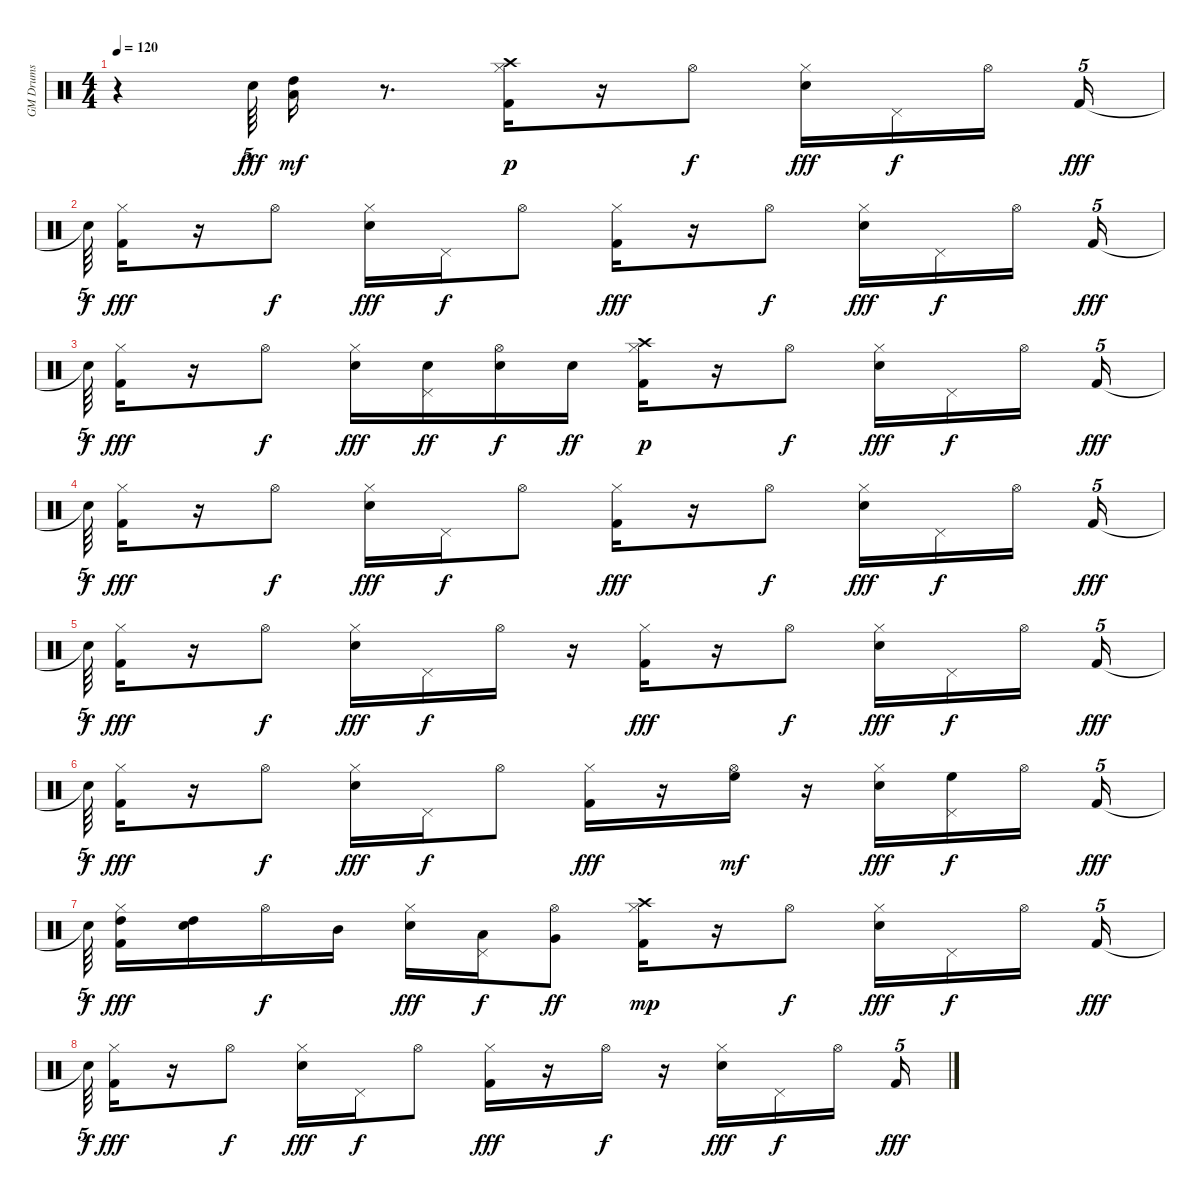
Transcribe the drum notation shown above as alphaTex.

\track ("GM Drums" "GM Drums") {instrument percussion}
\staff {score}
\articulation defaults
\ts (4 4)
\tempo 120
\clef neutral
\ks c
r.4{dy fff} "Electric Snare (hit)".64{tu (5 4)} ("High Tom (hit)" "Low Tom (hit)").16{dy mf} r.8{d} ("Kick (hit) 2" "Hi-Hat (closed)" "Crash high (hit)").16{dy p} r.16 "Hi-Hat (open)".8{dy f} ("Electric Snare (hit)" "Hi-Hat (closed)").16{dy fff} "Pedal Hi-Hat (hit)".16{dy f} "Hi-Hat (open)".16 "Kick (hit) 2".16{tu (5 4) dy fff} |
"Snare (hit)"{t}.64{tu (5 4) dy f} ("Kick (hit) 2" "Hi-Hat (closed)").16{dy fff} r.16 "Hi-Hat (open)".8{dy f} ("Electric Snare (hit)" "Hi-Hat (closed)").16{dy fff} "Pedal Hi-Hat (hit)".16{dy f} "Hi-Hat (open)".8 ("Kick (hit) 2" "Hi-Hat (closed)").16{dy fff} r.16 "Hi-Hat (open)".8{dy f} ("Electric Snare (hit)" "Hi-Hat (closed)").16{dy fff} "Pedal Hi-Hat (hit)".16{dy f} "Hi-Hat (open)".16 "Kick (hit) 2".16{tu (5 4) dy fff} |
"Snare (hit)"{t}.64{tu (5 4) dy f} ("Kick (hit) 2" "Hi-Hat (closed)").16{dy fff} r.16 "Hi-Hat (open)".8{dy f} ("Electric Snare (hit)" "Hi-Hat (closed)").16{dy fff} ("Electric Snare (hit)" "Pedal Hi-Hat (hit)").16{dy ff} ("Electric Snare (hit)" "Hi-Hat (open)").16{dy f} "Electric Snare (hit)".16{dy ff} ("Kick (hit) 2" "Hi-Hat (closed)" "Crash high (hit)").16{dy p} r.16 "Hi-Hat (open)".8{dy f} ("Electric Snare (hit)" "Hi-Hat (closed)").16{dy fff} "Pedal Hi-Hat (hit)".16{dy f} "Hi-Hat (open)".16 "Kick (hit) 2".16{tu (5 4) dy fff} |
"Snare (hit)"{t}.64{tu (5 4) dy f} ("Kick (hit) 2" "Hi-Hat (closed)").16{dy fff} r.16 "Hi-Hat (open)".8{dy f} ("Electric Snare (hit)" "Hi-Hat (closed)").16{dy fff} "Pedal Hi-Hat (hit)".16{dy f} "Hi-Hat (open)".8 ("Kick (hit) 2" "Hi-Hat (closed)").16{dy fff} r.16 "Hi-Hat (open)".8{dy f} ("Electric Snare (hit)" "Hi-Hat (closed)").16{dy fff} "Pedal Hi-Hat (hit)".16{dy f} "Hi-Hat (open)".16 "Kick (hit) 2".16{tu (5 4) dy fff} |
"Snare (hit)"{t}.64{tu (5 4) dy f} ("Kick (hit) 2" "Hi-Hat (closed)").16{dy fff} r.16 "Hi-Hat (open)".8{dy f} ("Electric Snare (hit)" "Hi-Hat (closed)").16{dy fff} "Pedal Hi-Hat (hit)".16{dy f} "Hi-Hat (open)".16 r.16 ("Kick (hit) 2" "Hi-Hat (closed)").16{dy fff} r.16 "Hi-Hat (open)".8{dy f} ("Electric Snare (hit)" "Hi-Hat (closed)").16{dy fff} "Pedal Hi-Hat (hit)".16{dy f} "Hi-Hat (open)".16 "Kick (hit) 2".16{tu (5 4) dy fff} |
"Snare (hit)"{t}.64{tu (5 4) dy f} ("Kick (hit) 2" "Hi-Hat (closed)").16{dy fff} r.16 "Hi-Hat (open)".8{dy f} ("Electric Snare (hit)" "Hi-Hat (closed)").16{dy fff} "Pedal Hi-Hat (hit)".16{dy f} "Hi-Hat (open)".8 ("Kick (hit) 2" "Hi-Hat (closed)").16{dy fff} r.16 ("Hi-Hat (open)" "High Floor Tom (hit)").16{dy mf} r.16 ("Electric Snare (hit)" "Hi-Hat (closed)").16{dy fff} ("Pedal Hi-Hat (hit)" "High Floor Tom (hit)").16{dy f} "Hi-Hat (open)".16 "Kick (hit) 2".16{tu (5 4) dy fff} |
"Snare (hit)"{t}.64{tu (5 4) dy f} ("Kick (hit) 2" "Hi-Hat (closed)" "High Tom (hit)").16{dy fff} ("Electric Snare (hit)" "High Tom (hit)").16 "Hi-Hat (open)".16{dy f} "Mid Tom (hit)".16 ("Electric Snare (hit)" "Hi-Hat (closed)").16{dy fff} ("Pedal Hi-Hat (hit)" "Low Tom (hit)").16{dy f} ("Very Low Tom (hit)" "Hi-Hat (open)").8{dy ff} ("Kick (hit) 2" "Hi-Hat (closed)" "Crash high (hit)").16{dy mp} r.16 "Hi-Hat (open)".8{dy f} ("Electric Snare (hit)" "Hi-Hat (closed)").16{dy fff} "Pedal Hi-Hat (hit)".16{dy f} "Hi-Hat (open)".16 "Kick (hit) 2".16{tu (5 4) dy fff} |
"Snare (hit)"{t}.64{tu (5 4) dy f} ("Kick (hit) 2" "Hi-Hat (closed)").16{dy fff} r.16 "Hi-Hat (open)".8{dy f} ("Electric Snare (hit)" "Hi-Hat (closed)").16{dy fff} "Pedal Hi-Hat (hit)".16{dy f} "Hi-Hat (open)".8 ("Kick (hit) 2" "Hi-Hat (closed)").16{dy fff} r.16 "Hi-Hat (open)".16{dy f} r.16 ("Electric Snare (hit)" "Hi-Hat (closed)").16{dy fff} "Pedal Hi-Hat (hit)".16{dy f} "Hi-Hat (open)".16 "Kick (hit) 2".16{tu (5 4) dy fff}
